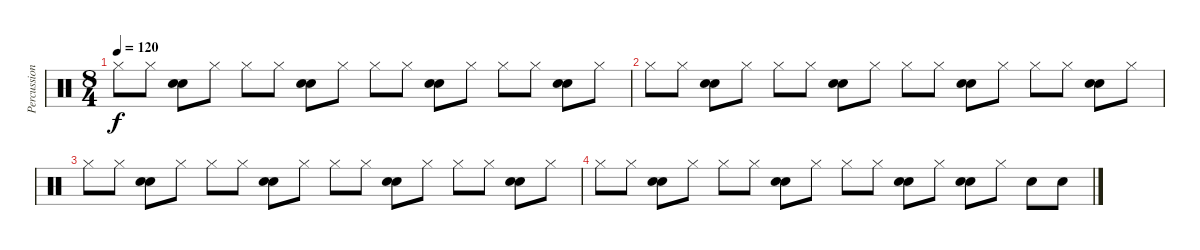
\track ("Percussions" "Percussion") {instrument percussion}
\staff {score}
\articulation defaults
\ts (8 4)
\tempo 120
\clef neutral
\ks c "Hi-Hat (closed)".8{dy f} "Hi-Hat (closed)".8
("Snare (hit) 2" "Electric Snare (hit)").8 "Hi-Hat (closed)".8 "Hi-Hat (closed)".8 "Hi-Hat (closed)".8 ("Snare (hit) 2" "Electric Snare (hit)").8 "Hi-Hat (closed)".8 "Hi-Hat (closed)".8 "Hi-Hat (closed)".8 ("Snare (hit) 2" "Electric Snare (hit)").8 "Hi-Hat (closed)".8 "Hi-Hat (closed)".8 "Hi-Hat (closed)".8 ("Snare (hit) 2" "Electric Snare (hit)").8 "Hi-Hat (closed)".8 |
"Hi-Hat (closed)".8 "Hi-Hat (closed)".8 ("Snare (hit) 2" "Electric Snare (hit)").8 "Hi-Hat (closed)".8 "Hi-Hat (closed)".8 "Hi-Hat (closed)".8 ("Snare (hit) 2" "Electric Snare (hit)").8 "Hi-Hat (closed)".8 "Hi-Hat (closed)".8 "Hi-Hat (closed)".8 ("Snare (hit) 2" "Electric Snare (hit)").8 "Hi-Hat (closed)".8 "Hi-Hat (closed)".8 "Hi-Hat (closed)".8 ("Snare (hit) 2" "Electric Snare (hit)").8 "Hi-Hat (closed)".8 |
"Hi-Hat (closed)".8 "Hi-Hat (closed)".8 ("Snare (hit) 2" "Electric Snare (hit)").8 "Hi-Hat (closed)".8 "Hi-Hat (closed)".8 "Hi-Hat (closed)".8 ("Snare (hit) 2" "Electric Snare (hit)").8 "Hi-Hat (closed)".8 "Hi-Hat (closed)".8 "Hi-Hat (closed)".8 ("Snare (hit) 2" "Electric Snare (hit)").8 "Hi-Hat (closed)".8 "Hi-Hat (closed)".8 "Hi-Hat (closed)".8 ("Snare (hit) 2" "Electric Snare (hit)").8 "Hi-Hat (closed)".8 |
"Hi-Hat (closed)".8 "Hi-Hat (closed)".8 ("Snare (hit) 2" "Electric Snare (hit)").8 "Hi-Hat (closed)".8 "Hi-Hat (closed)".8 "Hi-Hat (closed)".8 ("Snare (hit) 2" "Electric Snare (hit)").8 "Hi-Hat (closed)".8 "Hi-Hat (closed)".8 "Hi-Hat (closed)".8 ("Snare (hit) 2" "Electric Snare (hit)").8 "Hi-Hat (closed)".8 ("Snare (hit) 2" "Electric Snare (hit)").8 "Hi-Hat (closed)".8 "Snare (hit) 2".8 "Snare (hit) 2".8
